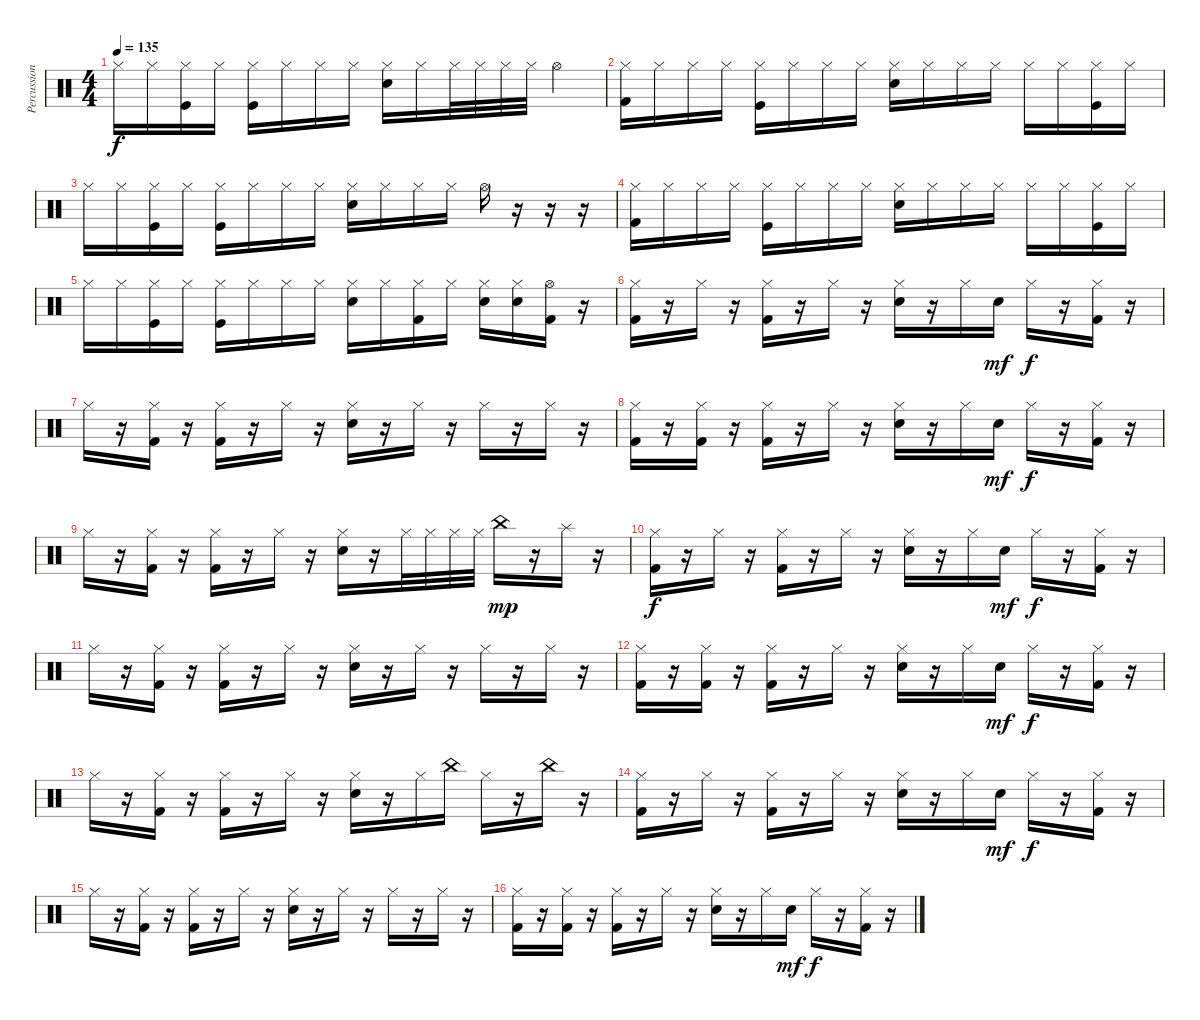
\track ("Percussion" "Percussion") {instrument percussion}
\staff {score}
\articulation defaults
\ts (4 4)
\tempo 135
\clef neutral
\ks c "Hi-Hat (closed)".16{dy f} "Hi-Hat (closed)".16
("Hi-Hat (closed)" "Kick (hit)").16 "Hi-Hat (closed)".16 ("Hi-Hat (closed)" "Kick (hit)").16 "Hi-Hat (closed)".16 "Hi-Hat (closed)".16 "Hi-Hat (closed)".16 ("Hi-Hat (closed)" "Electric Snare (hit)").16 "Hi-Hat (closed)".16 "Hi-Hat (closed)".32 "Hi-Hat (closed)".32 "Hi-Hat (closed)".32 "Hi-Hat (closed)".32 "Hi-Hat (open)".4 |
("Hi-Hat (closed)" "Kick (hit) 2").16 "Hi-Hat (closed)".16 "Hi-Hat (closed)".16 "Hi-Hat (closed)".16 ("Hi-Hat (closed)" "Kick (hit)").16 "Hi-Hat (closed)".16 "Hi-Hat (closed)".16 "Hi-Hat (closed)".16 ("Hi-Hat (closed)" "Electric Snare (hit)").16 "Hi-Hat (closed)".16 "Hi-Hat (closed)".16 "Hi-Hat (closed)".16 "Hi-Hat (closed)".16 "Hi-Hat (closed)".16 ("Hi-Hat (closed)" "Kick (hit)").16 "Hi-Hat (closed)".16 |
"Hi-Hat (closed)".16 "Hi-Hat (closed)".16 ("Hi-Hat (closed)" "Kick (hit)").16 "Hi-Hat (closed)".16 ("Hi-Hat (closed)" "Kick (hit)").16 "Hi-Hat (closed)".16 "Hi-Hat (closed)".16 "Hi-Hat (closed)".16 ("Hi-Hat (closed)" "Electric Snare (hit)").16 "Hi-Hat (closed)".16 "Hi-Hat (closed)".16 "Hi-Hat (closed)".16 "Hi-Hat (open)".16 r.16 r.16 r.16 |
("Hi-Hat (closed)" "Kick (hit) 2").16 "Hi-Hat (closed)".16 "Hi-Hat (closed)".16 "Hi-Hat (closed)".16 ("Hi-Hat (closed)" "Kick (hit)").16 "Hi-Hat (closed)".16 "Hi-Hat (closed)".16 "Hi-Hat (closed)".16 ("Hi-Hat (closed)" "Electric Snare (hit)").16 "Hi-Hat (closed)".16 "Hi-Hat (closed)".16 "Hi-Hat (closed)".16 "Hi-Hat (closed)".16 "Hi-Hat (closed)".16 ("Hi-Hat (closed)" "Kick (hit)").16 "Hi-Hat (closed)".16 |
"Hi-Hat (closed)".16 "Hi-Hat (closed)".16 ("Hi-Hat (closed)" "Kick (hit)").16 "Hi-Hat (closed)".16 ("Hi-Hat (closed)" "Kick (hit)").16 "Hi-Hat (closed)".16 "Hi-Hat (closed)".16 "Hi-Hat (closed)".16 ("Hi-Hat (closed)" "Electric Snare (hit)").16 "Hi-Hat (closed)".16 ("Hi-Hat (closed)" "Kick (hit) 2").16 "Hi-Hat (closed)".16 ("Hi-Hat (closed)" "Electric Snare (hit)").16 ("Hi-Hat (closed)" "Electric Snare (hit)").16 ("Hi-Hat (open)" "Kick (hit) 2").16 r.16 |
("Hi-Hat (closed)" "Kick (hit) 2").16 r.16 "Hi-Hat (closed)".16 r.16 ("Hi-Hat (closed)" "Kick (hit) 2").16 r.16 "Hi-Hat (closed)".16 r.16 ("Hi-Hat (closed)" "Electric Snare (hit)").16 r.16 "Hi-Hat (closed)".16 "Electric Snare (hit)".16{dy mf} "Hi-Hat (closed)".16{dy f} r.16 ("Hi-Hat (closed)" "Kick (hit) 2").16 r.16 |
"Hi-Hat (closed)".16 r.16 ("Hi-Hat (closed)" "Kick (hit) 2").16 r.16 ("Hi-Hat (closed)" "Kick (hit) 2").16 r.16 "Hi-Hat (closed)".16 r.16 ("Hi-Hat (closed)" "Electric Snare (hit)").16 r.16 "Hi-Hat (closed)".16 r.16 "Hi-Hat (closed)".16 r.16 "Hi-Hat (closed)".16 r.16 |
("Hi-Hat (closed)" "Kick (hit) 2").16 r.16 ("Hi-Hat (closed)" "Kick (hit) 2").16 r.16 ("Hi-Hat (closed)" "Kick (hit) 2").16 r.16 "Hi-Hat (closed)".16 r.16 ("Hi-Hat (closed)" "Electric Snare (hit)").16 r.16 "Hi-Hat (closed)".16 "Electric Snare (hit)".16{dy mf} "Hi-Hat (closed)".16{dy f} r.16 ("Hi-Hat (closed)" "Kick (hit) 2").16 r.16 |
"Hi-Hat (closed)".16 r.16 ("Hi-Hat (closed)" "Kick (hit) 2").16 r.16 ("Hi-Hat (closed)" "Kick (hit) 2").16 r.16 "Hi-Hat (closed)".16 r.16 ("Hi-Hat (closed)" "Electric Snare (hit)").16 r.16 "Hi-Hat (closed)".32 "Hi-Hat (closed)".32 "Hi-Hat (closed)".32 "Hi-Hat (closed)".32 "China (hit)".16{dy mp} r.16 "Splash (hit)".16 r.16 |
("Hi-Hat (closed)" "Kick (hit) 2").16{dy f} r.16 "Hi-Hat (closed)".16 r.16 ("Hi-Hat (closed)" "Kick (hit) 2").16 r.16 "Hi-Hat (closed)".16 r.16 ("Hi-Hat (closed)" "Electric Snare (hit)").16 r.16 "Hi-Hat (closed)".16 "Electric Snare (hit)".16{dy mf} "Hi-Hat (closed)".16{dy f} r.16 ("Hi-Hat (closed)" "Kick (hit) 2").16 r.16 |
"Hi-Hat (closed)".16 r.16 ("Hi-Hat (closed)" "Kick (hit) 2").16 r.16 ("Hi-Hat (closed)" "Kick (hit) 2").16 r.16 "Hi-Hat (closed)".16 r.16 ("Hi-Hat (closed)" "Electric Snare (hit)").16 r.16 "Hi-Hat (closed)".16 r.16 "Hi-Hat (closed)".16 r.16 "Hi-Hat (closed)".16 r.16 |
("Hi-Hat (closed)" "Kick (hit) 2").16 r.16 ("Hi-Hat (closed)" "Kick (hit) 2").16 r.16 ("Hi-Hat (closed)" "Kick (hit) 2").16 r.16 "Hi-Hat (closed)".16 r.16 ("Hi-Hat (closed)" "Electric Snare (hit)").16 r.16 "Hi-Hat (closed)".16 "Electric Snare (hit)".16{dy mf} "Hi-Hat (closed)".16{dy f} r.16 ("Hi-Hat (closed)" "Kick (hit) 2").16 r.16 |
"Hi-Hat (closed)".16 r.16 ("Hi-Hat (closed)" "Kick (hit) 2").16 r.16 ("Hi-Hat (closed)" "Kick (hit) 2").16 r.16 "Hi-Hat (closed)".16 r.16 ("Hi-Hat (closed)" "Electric Snare (hit)").16 r.16 "Hi-Hat (closed)".16 "China (hit)".16 "Hi-Hat (closed)".16 r.16 "China (hit)".16 r.16 |
("Hi-Hat (closed)" "Kick (hit) 2").16 r.16 "Hi-Hat (closed)".16 r.16 ("Hi-Hat (closed)" "Kick (hit) 2").16 r.16 "Hi-Hat (closed)".16 r.16 ("Hi-Hat (closed)" "Electric Snare (hit)").16 r.16 "Hi-Hat (closed)".16 "Electric Snare (hit)".16{dy mf} "Hi-Hat (closed)".16{dy f} r.16 ("Hi-Hat (closed)" "Kick (hit) 2").16 r.16 |
"Hi-Hat (closed)".16 r.16 ("Hi-Hat (closed)" "Kick (hit) 2").16 r.16 ("Hi-Hat (closed)" "Kick (hit) 2").16 r.16 "Hi-Hat (closed)".16 r.16 ("Hi-Hat (closed)" "Electric Snare (hit)").16 r.16 "Hi-Hat (closed)".16 r.16 "Hi-Hat (closed)".16 r.16 "Hi-Hat (closed)".16 r.16 |
("Hi-Hat (closed)" "Kick (hit) 2").16 r.16 ("Hi-Hat (closed)" "Kick (hit) 2").16 r.16 ("Hi-Hat (closed)" "Kick (hit) 2").16 r.16 "Hi-Hat (closed)".16 r.16 ("Hi-Hat (closed)" "Electric Snare (hit)").16 r.16 "Hi-Hat (closed)".16 "Electric Snare (hit)".16{dy mf} "Hi-Hat (closed)".16{dy f} r.16 ("Hi-Hat (closed)" "Kick (hit) 2").16 r.16
